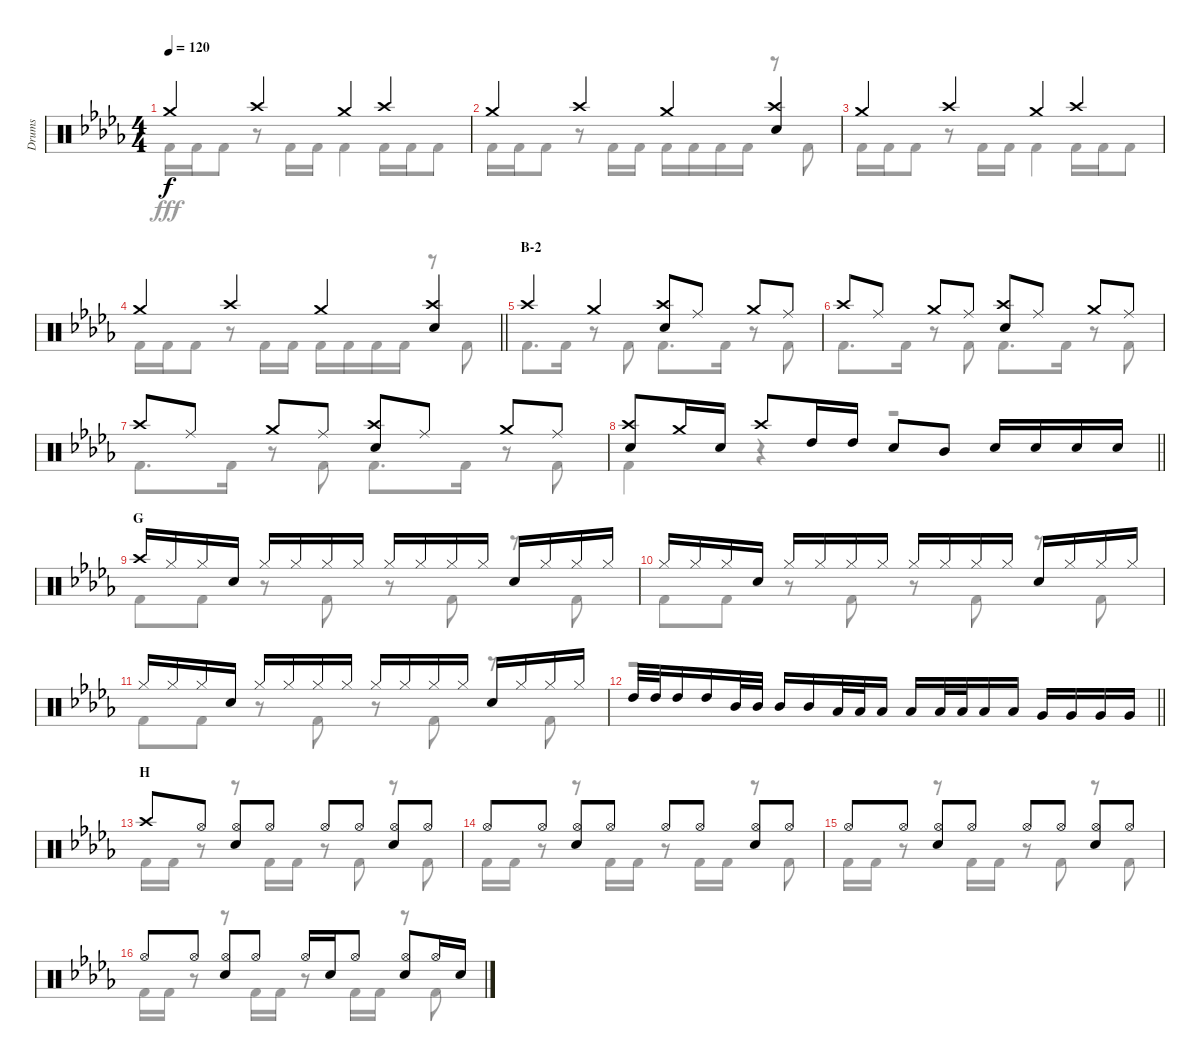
\track ("Drums" "Drums") {instrument percussion}
\staff {score}
\articulation defaults
\voice
\ts (4 4)
\tempo 120
\clef neutral
\ks db "Crash medium (hit)".4{dy f} "Crash high (hit)".4 "Crash medium (hit)".4 "Crash high (hit)".4
|
"Crash medium (hit)".4 "Crash high (hit)".4 "Crash medium (hit)".4 ("Crash high (hit)" "Snare (hit) 2").4 |
"Crash medium (hit)".4 "Crash high (hit)".4 "Crash medium (hit)".4 "Crash high (hit)".4 |
\barLineRight lightlight "Crash medium (hit)".4 "Crash high (hit)".4 "Crash medium (hit)".4
("Crash high (hit)" "Snare (hit) 2").4 |
\section ("" "B-2")
"Crash high (hit)".4 "Crash medium (hit)".4 ("Crash high (hit)" "Snare (hit) 2").8 "Ride (middle)".8 "Crash medium (hit)".8 "Ride (middle)".8 |
"Crash high (hit)".8 "Ride (middle)".8 "Crash medium (hit)".8 "Ride (middle)".8 ("Crash high (hit)" "Snare (hit) 2").8 "Ride (middle)".8 "Crash medium (hit)".8 "Ride (middle)".8 |
"Crash high (hit)".8 "Ride (middle)".8 "Crash medium (hit)".8 "Ride (middle)".8 ("Crash high (hit)" "Snare (hit) 2").8 "Ride (middle)".8 "Crash medium (hit)".8 "Ride (middle)".8 |
\barLineRight lightlight
("Crash high (hit)" "Snare (hit) 2").8 "Crash medium (hit)".16 "Snare (hit) 2".16 "Crash high (hit)".8 "High Tom (hit)".16 "High Tom (hit)".16 "Snare (hit) 2".8 "Mid Tom (hit)".8 "Snare (hit) 2".16 "Snare (hit) 2".16 "Snare (hit) 2".16 "Snare (hit) 2".16 |
\section ("" "G")
"Crash high (hit)".16 "Hi-Hat (closed)".16 "Hi-Hat (closed)".16 "Snare (hit) 2".16 "Hi-Hat (closed)".16 "Hi-Hat (closed)".16 "Hi-Hat (closed)".16 "Hi-Hat (closed)".16 "Hi-Hat (closed)".16 "Hi-Hat (closed)".16 "Hi-Hat (closed)".16 "Hi-Hat (closed)".16 "Snare (hit) 2".16 "Hi-Hat (closed)".16 "Hi-Hat (closed)".16 "Hi-Hat (closed)".16 |
"Hi-Hat (closed)".16 "Hi-Hat (closed)".16 "Hi-Hat (closed)".16 "Snare (hit) 2".16 "Hi-Hat (closed)".16 "Hi-Hat (closed)".16 "Hi-Hat (closed)".16 "Hi-Hat (closed)".16 "Hi-Hat (closed)".16 "Hi-Hat (closed)".16 "Hi-Hat (closed)".16 "Hi-Hat (closed)".16 "Snare (hit) 2".16 "Hi-Hat (closed)".16 "Hi-Hat (closed)".16 "Hi-Hat (closed)".16 |
"Hi-Hat (closed)".16 "Hi-Hat (closed)".16 "Hi-Hat (closed)".16 "Snare (hit) 2".16 "Hi-Hat (closed)".16 "Hi-Hat (closed)".16 "Hi-Hat (closed)".16 "Hi-Hat (closed)".16 "Hi-Hat (closed)".16 "Hi-Hat (closed)".16 "Hi-Hat (closed)".16 "Hi-Hat (closed)".16 "Snare (hit) 2".16 "Hi-Hat (closed)".16 "Hi-Hat (closed)".16 "Hi-Hat (closed)".16 |
\barLineRight lightlight "High Tom (hit)".32 "High Tom (hit)".32 "High Tom (hit)".16 "High Tom (hit)".16 "Mid Tom (hit)".32 "Mid Tom (hit)".32 "Mid Tom (hit)".16 "Mid Tom (hit)".16 "Low Tom (hit)".32 "Low Tom (hit)".32 "Low Tom (hit)".16 "Low Tom (hit)".16 "Low Tom (hit)".32 "Low Tom (hit)".32 "Low Tom (hit)".16 "Low Tom (hit)".16 "Very Low Tom (hit)".16 "Very Low Tom (hit)".16 "Very Low Tom (hit)".16 "Very Low Tom (hit)".16
|
\section ("" "H")
"Crash high (hit)".8 "Hi-Hat (open)".8 ("Hi-Hat (open)" "Snare (hit) 2").8 "Hi-Hat (open)".8 "Hi-Hat (open)".8 "Hi-Hat (open)".8 ("Hi-Hat (open)" "Snare (hit) 2").8 "Hi-Hat (open)".8 |
"Hi-Hat (open)".8 "Hi-Hat (open)".8 ("Hi-Hat (open)" "Snare (hit) 2").8 "Hi-Hat (open)".8 "Hi-Hat (open)".8 "Hi-Hat (open)".8 ("Hi-Hat (open)" "Snare (hit) 2").8 "Hi-Hat (open)".8 |
"Hi-Hat (open)".8 "Hi-Hat (open)".8 ("Hi-Hat (open)" "Snare (hit) 2").8 "Hi-Hat (open)".8 "Hi-Hat (open)".8 "Hi-Hat (open)".8 ("Hi-Hat (open)" "Snare (hit) 2").8 "Hi-Hat (open)".8 |
"Hi-Hat (open)".8 "Hi-Hat (open)".8 ("Hi-Hat (open)" "Snare (hit) 2").8 "Hi-Hat (open)".8 "Hi-Hat (open)".16 "Snare (hit) 2".16 "Hi-Hat (open)".8 ("Hi-Hat (open)" "Snare (hit) 2").8 "Hi-Hat (open)".16 "Snare (hit) 2".16
\voice
\clef neutral
\ottava regular
\simile none
\ks db "Kick (hit) 2".16{dy fff} "Kick (hit) 2".16 "Kick (hit) 2".8
r.8 "Kick (hit) 2".16 "Kick (hit) 2".16 "Kick (hit) 2".4 "Kick (hit) 2".16 "Kick (hit) 2".16 "Kick (hit) 2".8 |
"Kick (hit) 2".16 "Kick (hit) 2".16 "Kick (hit) 2".8 r.8 "Kick (hit) 2".16 "Kick (hit) 2".16 "Kick (hit) 2".16 "Kick (hit) 2".16 "Kick (hit) 2".16 "Kick (hit) 2".16 r.8 "Kick (hit) 2".8 |
"Kick (hit) 2".16 "Kick (hit) 2".16 "Kick (hit) 2".8 r.8 "Kick (hit) 2".16 "Kick (hit) 2".16 "Kick (hit) 2".4 "Kick (hit) 2".16 "Kick (hit) 2".16 "Kick (hit) 2".8 |
\barLineRight lightlight "Kick (hit) 2".16 "Kick (hit) 2".16 "Kick (hit) 2".8
r.8 "Kick (hit) 2".16 "Kick (hit) 2".16 "Kick (hit) 2".16 "Kick (hit) 2".16 "Kick (hit) 2".16 "Kick (hit) 2".16 r.8 "Kick (hit) 2".8 |
"Kick (hit) 2".8{d} "Kick (hit) 2".16 r.8 "Kick (hit) 2".8 "Kick (hit) 2".8{d} "Kick (hit) 2".16 r.8 "Kick (hit) 2".8 |
"Kick (hit) 2".8{d} "Kick (hit) 2".16 r.8 "Kick (hit) 2".8 "Kick (hit) 2".8{d} "Kick (hit) 2".16 r.8 "Kick (hit) 2".8 |
"Kick (hit) 2".8{d} "Kick (hit) 2".16 r.8 "Kick (hit) 2".8 "Kick (hit) 2".8{d} "Kick (hit) 2".16 r.8 "Kick (hit) 2".8 |
\barLineRight lightlight "Kick (hit) 2".4
r.4 r.2 |
"Kick (hit) 2".8 "Kick (hit) 2".8 r.8 "Kick (hit) 2".8 r.8 "Kick (hit) 2".8 r.8 "Kick (hit) 2".8 |
"Kick (hit) 2".8 "Kick (hit) 2".8 r.8 "Kick (hit) 2".8 r.8 "Kick (hit) 2".8 r.8 "Kick (hit) 2".8 |
"Kick (hit) 2".8 "Kick (hit) 2".8 r.8 "Kick (hit) 2".8 r.8 "Kick (hit) 2".8 r.8 "Kick (hit) 2".8 |
\barLineRight lightlight
r.1 |
"Kick (hit) 2".16 "Kick (hit) 2".16 r.8 r.8 "Kick (hit) 2".16 "Kick (hit) 2".16 r.8 "Kick (hit) 2".8 r.8 "Kick (hit) 2".8 |
"Kick (hit) 2".16 "Kick (hit) 2".16 r.8 r.8 "Kick (hit) 2".16 "Kick (hit) 2".16 r.8 "Kick (hit) 2".16 "Kick (hit) 2".16 r.8 "Kick (hit) 2".8 |
"Kick (hit) 2".16 "Kick (hit) 2".16 r.8 r.8 "Kick (hit) 2".16 "Kick (hit) 2".16 r.8 "Kick (hit) 2".8 r.8 "Kick (hit) 2".8 |
"Kick (hit) 2".16 "Kick (hit) 2".16 r.8 r.8 "Kick (hit) 2".16 "Kick (hit) 2".16 r.8 "Kick (hit) 2".16 "Kick (hit) 2".16 r.8 "Kick (hit) 2".8
